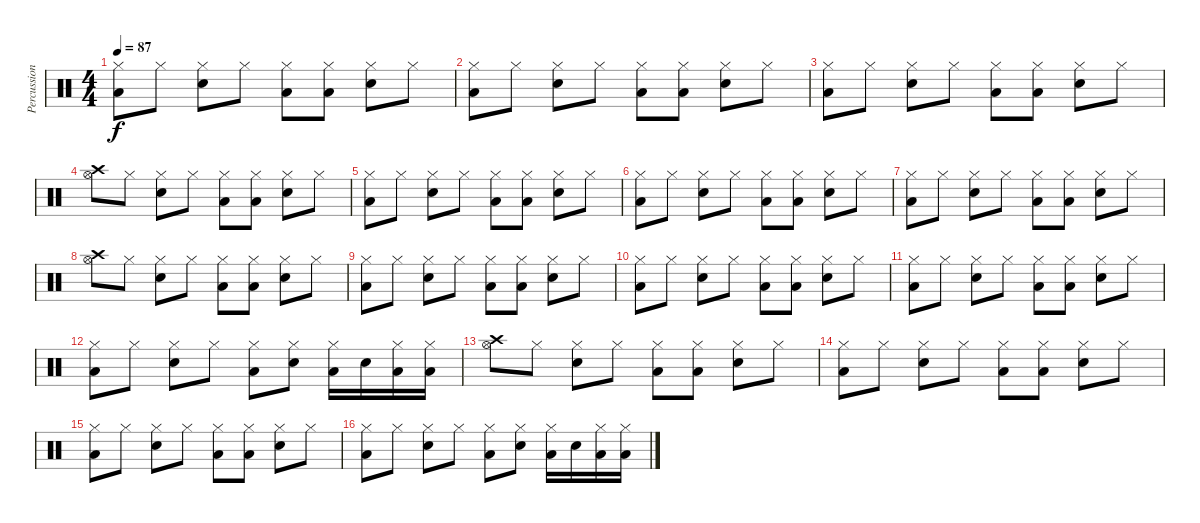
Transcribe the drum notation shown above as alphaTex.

\track ("Percussion" "Percussion") {instrument percussion}
\staff {score}
\articulation defaults
\ts (4 4)
\tempo 87
\clef neutral
\ks c
("Hi-Hat (closed)" "Low Floor Tom (hit)").8{dy f} "Hi-Hat (closed)".8 ("Hi-Hat (closed)" "Electric Snare (hit)").8 "Hi-Hat (closed)".8 ("Hi-Hat (closed)" "Low Floor Tom (hit)").8 ("Hi-Hat (closed)" "Low Floor Tom (hit)").8 ("Hi-Hat (closed)" "Electric Snare (hit)").8 "Hi-Hat (closed)".8 |
("Hi-Hat (closed)" "Low Floor Tom (hit)").8 "Hi-Hat (closed)".8 ("Hi-Hat (closed)" "Electric Snare (hit)").8 "Hi-Hat (closed)".8 ("Hi-Hat (closed)" "Low Floor Tom (hit)").8 ("Hi-Hat (closed)" "Low Floor Tom (hit)").8 ("Hi-Hat (closed)" "Electric Snare (hit)").8 "Hi-Hat (closed)".8 |
("Hi-Hat (closed)" "Low Floor Tom (hit)").8 "Hi-Hat (closed)".8 ("Hi-Hat (closed)" "Electric Snare (hit)").8 "Hi-Hat (closed)".8 ("Hi-Hat (closed)" "Low Floor Tom (hit)").8 ("Hi-Hat (closed)" "Low Floor Tom (hit)").8 ("Hi-Hat (closed)" "Electric Snare (hit)").8 "Hi-Hat (closed)".8 |
("Crash high (hit)" "Hi-Hat (open)").8 "Hi-Hat (closed)".8 ("Hi-Hat (closed)" "Electric Snare (hit)").8 "Hi-Hat (closed)".8 ("Hi-Hat (closed)" "Low Floor Tom (hit)").8 ("Hi-Hat (closed)" "Low Floor Tom (hit)").8 ("Hi-Hat (closed)" "Electric Snare (hit)").8 "Hi-Hat (closed)".8 |
("Hi-Hat (closed)" "Low Floor Tom (hit)").8 "Hi-Hat (closed)".8 ("Hi-Hat (closed)" "Electric Snare (hit)").8 "Hi-Hat (closed)".8 ("Hi-Hat (closed)" "Low Floor Tom (hit)").8 ("Hi-Hat (closed)" "Low Floor Tom (hit)").8 ("Hi-Hat (closed)" "Electric Snare (hit)").8 "Hi-Hat (closed)".8 |
("Hi-Hat (closed)" "Low Floor Tom (hit)").8 "Hi-Hat (closed)".8 ("Hi-Hat (closed)" "Electric Snare (hit)").8 "Hi-Hat (closed)".8 ("Hi-Hat (closed)" "Low Floor Tom (hit)").8 ("Hi-Hat (closed)" "Low Floor Tom (hit)").8 ("Hi-Hat (closed)" "Electric Snare (hit)").8 "Hi-Hat (closed)".8 |
("Hi-Hat (closed)" "Low Floor Tom (hit)").8 "Hi-Hat (closed)".8 ("Hi-Hat (closed)" "Electric Snare (hit)").8 "Hi-Hat (closed)".8 ("Hi-Hat (closed)" "Low Floor Tom (hit)").8 ("Hi-Hat (closed)" "Low Floor Tom (hit)").8 ("Hi-Hat (closed)" "Electric Snare (hit)").8 "Hi-Hat (closed)".8 |
("Crash high (hit)" "Hi-Hat (open)").8 "Hi-Hat (closed)".8 ("Hi-Hat (closed)" "Electric Snare (hit)").8 "Hi-Hat (closed)".8 ("Hi-Hat (closed)" "Low Floor Tom (hit)").8 ("Hi-Hat (closed)" "Low Floor Tom (hit)").8 ("Hi-Hat (closed)" "Electric Snare (hit)").8 "Hi-Hat (closed)".8 |
("Hi-Hat (closed)" "Low Floor Tom (hit)").8 "Hi-Hat (closed)".8 ("Hi-Hat (closed)" "Electric Snare (hit)").8 "Hi-Hat (closed)".8 ("Hi-Hat (closed)" "Low Floor Tom (hit)").8 ("Hi-Hat (closed)" "Low Floor Tom (hit)").8 ("Hi-Hat (closed)" "Electric Snare (hit)").8 "Hi-Hat (closed)".8 |
("Hi-Hat (closed)" "Low Floor Tom (hit)").8 "Hi-Hat (closed)".8 ("Hi-Hat (closed)" "Electric Snare (hit)").8 "Hi-Hat (closed)".8 ("Hi-Hat (closed)" "Low Floor Tom (hit)").8 ("Hi-Hat (closed)" "Low Floor Tom (hit)").8 ("Hi-Hat (closed)" "Electric Snare (hit)").8 "Hi-Hat (closed)".8 |
("Hi-Hat (closed)" "Low Floor Tom (hit)").8 "Hi-Hat (closed)".8 ("Hi-Hat (closed)" "Electric Snare (hit)").8 "Hi-Hat (closed)".8 ("Hi-Hat (closed)" "Low Floor Tom (hit)").8 ("Hi-Hat (closed)" "Low Floor Tom (hit)").8 ("Hi-Hat (closed)" "Electric Snare (hit)").8 "Hi-Hat (closed)".8 |
("Hi-Hat (closed)" "Low Floor Tom (hit)").8 "Hi-Hat (closed)".8 ("Hi-Hat (closed)" "Electric Snare (hit)").8 "Hi-Hat (closed)".8 ("Hi-Hat (closed)" "Low Floor Tom (hit)").8 ("Hi-Hat (closed)" "Electric Snare (hit)").8 ("Hi-Hat (closed)" "Low Floor Tom (hit)").16 "Electric Snare (hit)".16 ("Hi-Hat (closed)" "Low Floor Tom (hit)").16 ("Hi-Hat (closed)" "Low Floor Tom (hit)").16 |
("Crash high (hit)" "Hi-Hat (open)").8 "Hi-Hat (closed)".8 ("Hi-Hat (closed)" "Electric Snare (hit)").8 "Hi-Hat (closed)".8 ("Hi-Hat (closed)" "Low Floor Tom (hit)").8 ("Hi-Hat (closed)" "Low Floor Tom (hit)").8 ("Hi-Hat (closed)" "Electric Snare (hit)").8 "Hi-Hat (closed)".8 |
("Hi-Hat (closed)" "Low Floor Tom (hit)").8 "Hi-Hat (closed)".8 ("Hi-Hat (closed)" "Electric Snare (hit)").8 "Hi-Hat (closed)".8 ("Hi-Hat (closed)" "Low Floor Tom (hit)").8 ("Hi-Hat (closed)" "Low Floor Tom (hit)").8 ("Hi-Hat (closed)" "Electric Snare (hit)").8 "Hi-Hat (closed)".8 |
("Hi-Hat (closed)" "Low Floor Tom (hit)").8 "Hi-Hat (closed)".8 ("Hi-Hat (closed)" "Electric Snare (hit)").8 "Hi-Hat (closed)".8 ("Hi-Hat (closed)" "Low Floor Tom (hit)").8 ("Hi-Hat (closed)" "Low Floor Tom (hit)").8 ("Hi-Hat (closed)" "Electric Snare (hit)").8 "Hi-Hat (closed)".8 |
("Hi-Hat (closed)" "Low Floor Tom (hit)").8 "Hi-Hat (closed)".8 ("Hi-Hat (closed)" "Electric Snare (hit)").8 "Hi-Hat (closed)".8 ("Hi-Hat (closed)" "Low Floor Tom (hit)").8 ("Hi-Hat (closed)" "Electric Snare (hit)").8 ("Hi-Hat (closed)" "Low Floor Tom (hit)").16 "Electric Snare (hit)".16 ("Hi-Hat (closed)" "Low Floor Tom (hit)").16 ("Hi-Hat (closed)" "Low Floor Tom (hit)").16
